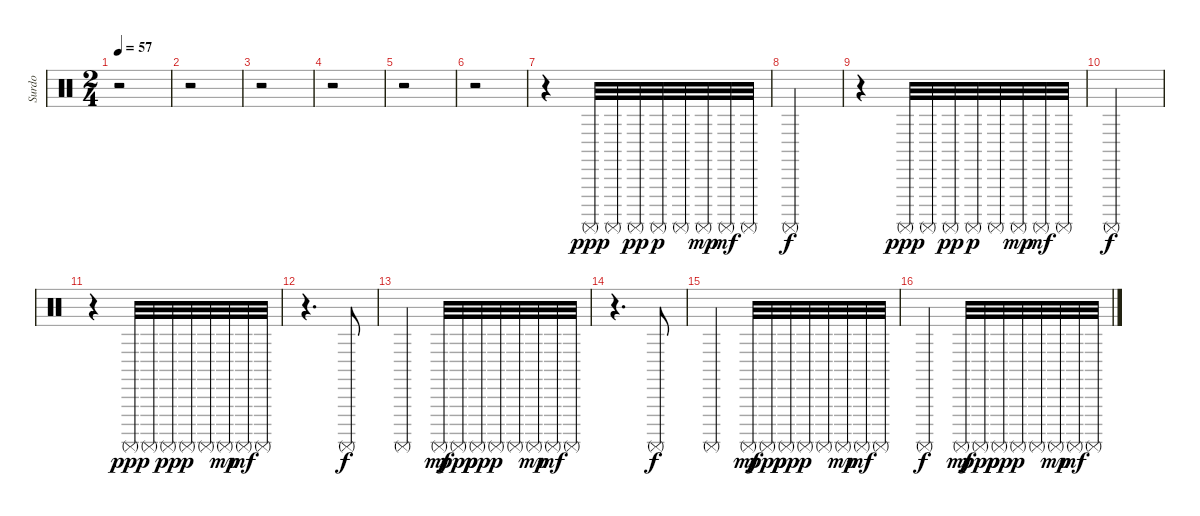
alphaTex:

\track ("Surdo" "Surdo") {instrument percussion}
\staff {score}
\articulation defaults
\ts (2 4)
\tempo 57
\clef neutral
\ks c
r.2{dy ppp} |
r.2 |
r.2 |
r.2 |
r.2 |
r.2 |
r.4 "Surdo (mute)".32 "Surdo (mute)".32 "Surdo (mute)".32{dy pp} "Surdo (mute)".32{dy p} "Surdo (mute)".32 "Surdo (mute)".32{dy mp} "Surdo (mute)".32{dy mf} "Surdo (mute)".32 |
"Surdo (mute)".2{dy f} |
r.4 "Surdo (mute)".32{dy ppp} "Surdo (mute)".32 "Surdo (mute)".32{dy pp} "Surdo (mute)".32{dy p} "Surdo (mute)".32 "Surdo (mute)".32{dy mp} "Surdo (mute)".32{dy mf} "Surdo (mute)".32 |
"Surdo (mute)".2{dy f} |
r.4 "Surdo (mute)".32{dy ppp} "Surdo (mute)".32 "Surdo (mute)".32{dy pp} "Surdo (mute)".32{dy p} "Surdo (mute)".32 "Surdo (mute)".32{dy mp} "Surdo (mute)".32{dy mf} "Surdo (mute)".32 |
r.4{d} "Surdo (mute)".8{dy f} |
"Surdo (mute)".4 "Surdo (mute)".32{dy mf} "Surdo (mute)".32{dy ppp} "Surdo (mute)".32{dy pp} "Surdo (mute)".32{dy p} "Surdo (mute)".32 "Surdo (mute)".32{dy mp} "Surdo (mute)".32{dy mf} "Surdo (mute)".32 |
r.4{d} "Surdo (mute)".8{dy f} |
"Surdo (mute)".4 "Surdo (mute)".32{dy mf} "Surdo (mute)".32{dy ppp} "Surdo (mute)".32{dy pp} "Surdo (mute)".32{dy p} "Surdo (mute)".32 "Surdo (mute)".32{dy mp} "Surdo (mute)".32{dy mf} "Surdo (mute)".32 |
"Surdo (mute)".4{dy f} "Surdo (mute)".32{dy mf} "Surdo (mute)".32{dy ppp} "Surdo (mute)".32{dy pp} "Surdo (mute)".32{dy p} "Surdo (mute)".32 "Surdo (mute)".32{dy mp} "Surdo (mute)".32{dy mf} "Surdo (mute)".32
